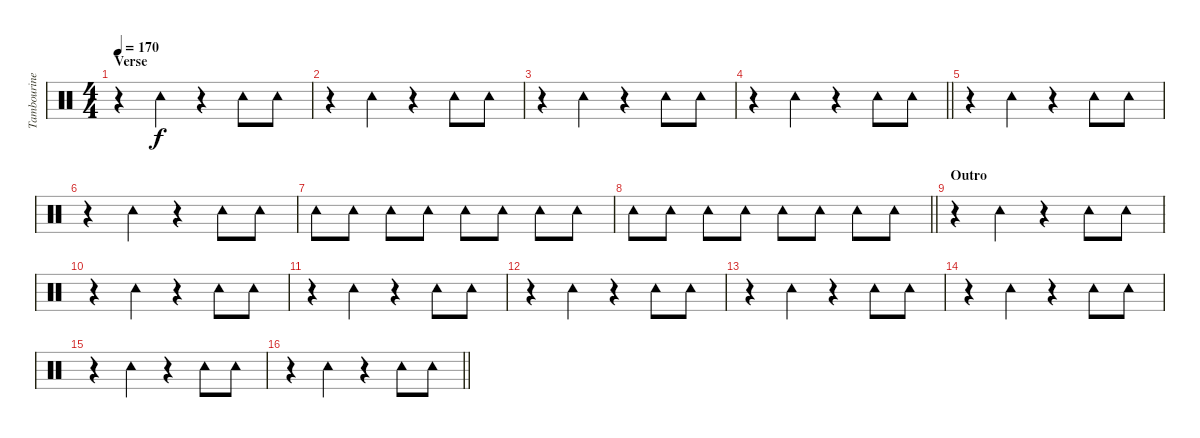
\track ("Tambourine" "Tambourine") {instrument percussion}
\staff {score}
\articulation defaults
\ts (4 4)
\section ("" "Verse")
\tempo 170
\clef neutral
\ks c
r.4{dy f} "Tambourine (hit)".4 r.4 "Tambourine (hit)".8 "Tambourine (hit)".8 |
r.4 "Tambourine (hit)".4 r.4 "Tambourine (hit)".8 "Tambourine (hit)".8 |
r.4 "Tambourine (hit)".4 r.4 "Tambourine (hit)".8 "Tambourine (hit)".8 |
\barLineRight lightlight
r.4 "Tambourine (hit)".4 r.4 "Tambourine (hit)".8 "Tambourine (hit)".8 |
r.4 "Tambourine (hit)".4 r.4 "Tambourine (hit)".8 "Tambourine (hit)".8 |
r.4 "Tambourine (hit)".4 r.4 "Tambourine (hit)".8 "Tambourine (hit)".8 |
"Tambourine (hit)".8 "Tambourine (hit)".8 "Tambourine (hit)".8 "Tambourine (hit)".8 "Tambourine (hit)".8 "Tambourine (hit)".8 "Tambourine (hit)".8 "Tambourine (hit)".8 |
\barLineRight lightlight "Tambourine (hit)".8 "Tambourine (hit)".8 "Tambourine (hit)".8 "Tambourine (hit)".8 "Tambourine (hit)".8 "Tambourine (hit)".8 "Tambourine (hit)".8 "Tambourine (hit)".8
|
\section ("" "Outro")
r.4 "Tambourine (hit)".4 r.4 "Tambourine (hit)".8 "Tambourine (hit)".8 |
r.4 "Tambourine (hit)".4 r.4 "Tambourine (hit)".8 "Tambourine (hit)".8 |
r.4 "Tambourine (hit)".4 r.4 "Tambourine (hit)".8 "Tambourine (hit)".8 |
r.4 "Tambourine (hit)".4 r.4 "Tambourine (hit)".8 "Tambourine (hit)".8 |
r.4 "Tambourine (hit)".4 r.4 "Tambourine (hit)".8 "Tambourine (hit)".8 |
r.4 "Tambourine (hit)".4 r.4 "Tambourine (hit)".8 "Tambourine (hit)".8 |
r.4 "Tambourine (hit)".4 r.4 "Tambourine (hit)".8 "Tambourine (hit)".8 |
\barLineRight lightlight
r.4 "Tambourine (hit)".4 r.4 "Tambourine (hit)".8 "Tambourine (hit)".8
